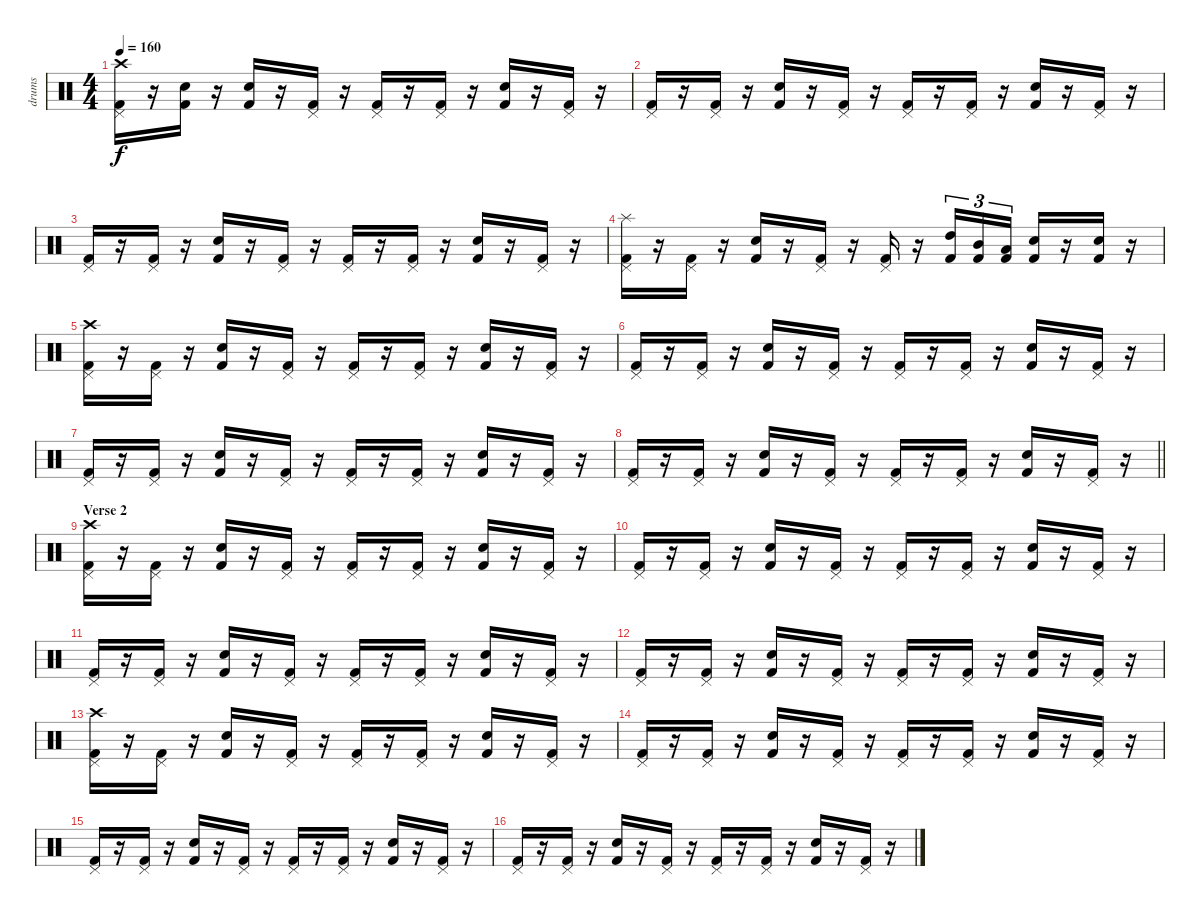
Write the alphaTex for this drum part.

\track ("drums" "drums") {instrument percussion}
\staff {score}
\articulation defaults
\ts (4 4)
\tempo 160
\clef neutral
\ks c
("Crash high (hit)" "Pedal Hi-Hat (hit)" "Kick (hit) 2").16{dy f} r.16 ("Snare (hit) 2" "Kick (hit) 2").16 r.16 ("Snare (hit) 2" "Kick (hit) 2").16 r.16 ("Pedal Hi-Hat (hit)" "Kick (hit) 2").16 r.16 ("Pedal Hi-Hat (hit)" "Kick (hit) 2").16 r.16 ("Pedal Hi-Hat (hit)" "Kick (hit) 2").16 r.16 ("Snare (hit) 2" "Kick (hit) 2").16 r.16 ("Pedal Hi-Hat (hit)" "Kick (hit) 2").16 r.16 |
("Pedal Hi-Hat (hit)" "Kick (hit) 2").16 r.16 ("Pedal Hi-Hat (hit)" "Kick (hit) 2").16 r.16 ("Snare (hit) 2" "Kick (hit) 2").16 r.16 ("Pedal Hi-Hat (hit)" "Kick (hit) 2").16 r.16 ("Pedal Hi-Hat (hit)" "Kick (hit) 2").16 r.16 ("Pedal Hi-Hat (hit)" "Kick (hit) 2").16 r.16 ("Snare (hit) 2" "Kick (hit) 2").16 r.16 ("Pedal Hi-Hat (hit)" "Kick (hit) 2").16 r.16 |
("Pedal Hi-Hat (hit)" "Kick (hit) 2").16 r.16 ("Pedal Hi-Hat (hit)" "Kick (hit) 2").16 r.16 ("Snare (hit) 2" "Kick (hit) 2").16 r.16 ("Pedal Hi-Hat (hit)" "Kick (hit) 2").16 r.16 ("Pedal Hi-Hat (hit)" "Kick (hit) 2").16 r.16 ("Pedal Hi-Hat (hit)" "Kick (hit) 2").16 r.16 ("Snare (hit) 2" "Kick (hit) 2").16 r.16 ("Pedal Hi-Hat (hit)" "Kick (hit) 2").16 r.16 |
("Splash (hit)" "Pedal Hi-Hat (hit)" "Kick (hit) 2").16 r.16 ("Pedal Hi-Hat (hit)" "Kick (hit) 2").16 r.16 ("Snare (hit) 2" "Kick (hit) 2").16 r.16 ("Pedal Hi-Hat (hit)" "Kick (hit) 2").16 r.16 ("Pedal Hi-Hat (hit)" "Kick (hit) 2").16 r.16 ("High Tom (hit)" "Kick (hit) 2").16{tu (3 2)} ("Mid Tom (hit)" "Kick (hit) 2").16{tu (3 2)} ("Low Tom (hit)" "Kick (hit) 2").16{tu (3 2)} ("Electric Snare (hit)" "Kick (hit) 2").16 r.16 ("Snare (hit) 2" "Kick (hit) 2").16 r.16 |
("Crash high (hit)" "Pedal Hi-Hat (hit)" "Kick (hit) 2").16 r.16 ("Pedal Hi-Hat (hit)" "Kick (hit) 2").16 r.16 ("Snare (hit) 2" "Kick (hit) 2").16 r.16 ("Pedal Hi-Hat (hit)" "Kick (hit) 2").16 r.16 ("Pedal Hi-Hat (hit)" "Kick (hit) 2").16 r.16 ("Pedal Hi-Hat (hit)" "Kick (hit) 2").16 r.16 ("Snare (hit) 2" "Kick (hit) 2").16 r.16 ("Pedal Hi-Hat (hit)" "Kick (hit) 2").16 r.16 |
("Pedal Hi-Hat (hit)" "Kick (hit) 2").16 r.16 ("Pedal Hi-Hat (hit)" "Kick (hit) 2").16 r.16 ("Snare (hit) 2" "Kick (hit) 2").16 r.16 ("Pedal Hi-Hat (hit)" "Kick (hit) 2").16 r.16 ("Pedal Hi-Hat (hit)" "Kick (hit) 2").16 r.16 ("Pedal Hi-Hat (hit)" "Kick (hit) 2").16 r.16 ("Snare (hit) 2" "Kick (hit) 2").16 r.16 ("Pedal Hi-Hat (hit)" "Kick (hit) 2").16 r.16 |
("Pedal Hi-Hat (hit)" "Kick (hit) 2").16 r.16 ("Pedal Hi-Hat (hit)" "Kick (hit) 2").16 r.16 ("Snare (hit) 2" "Kick (hit) 2").16 r.16 ("Pedal Hi-Hat (hit)" "Kick (hit) 2").16 r.16 ("Pedal Hi-Hat (hit)" "Kick (hit) 2").16 r.16 ("Pedal Hi-Hat (hit)" "Kick (hit) 2").16 r.16 ("Snare (hit) 2" "Kick (hit) 2").16 r.16 ("Pedal Hi-Hat (hit)" "Kick (hit) 2").16 r.16 |
\barLineRight lightlight
("Pedal Hi-Hat (hit)" "Kick (hit) 2").16 r.16 ("Pedal Hi-Hat (hit)" "Kick (hit) 2").16 r.16 ("Snare (hit) 2" "Kick (hit) 2").16 r.16 ("Pedal Hi-Hat (hit)" "Kick (hit) 2").16 r.16 ("Pedal Hi-Hat (hit)" "Kick (hit) 2").16 r.16 ("Pedal Hi-Hat (hit)" "Kick (hit) 2").16 r.16 ("Snare (hit) 2" "Kick (hit) 2").16 r.16 ("Pedal Hi-Hat (hit)" "Kick (hit) 2").16 r.16 |
\section ("" "Verse 2")
("Crash high (hit)" "Pedal Hi-Hat (hit)" "Kick (hit) 2").16 r.16 ("Pedal Hi-Hat (hit)" "Kick (hit) 2").16 r.16 ("Snare (hit) 2" "Kick (hit) 2").16 r.16 ("Pedal Hi-Hat (hit)" "Kick (hit) 2").16 r.16 ("Pedal Hi-Hat (hit)" "Kick (hit) 2").16 r.16 ("Pedal Hi-Hat (hit)" "Kick (hit) 2").16 r.16 ("Snare (hit) 2" "Kick (hit) 2").16 r.16 ("Pedal Hi-Hat (hit)" "Kick (hit) 2").16 r.16 |
("Pedal Hi-Hat (hit)" "Kick (hit) 2").16 r.16 ("Pedal Hi-Hat (hit)" "Kick (hit) 2").16 r.16 ("Snare (hit) 2" "Kick (hit) 2").16 r.16 ("Pedal Hi-Hat (hit)" "Kick (hit) 2").16 r.16 ("Pedal Hi-Hat (hit)" "Kick (hit) 2").16 r.16 ("Pedal Hi-Hat (hit)" "Kick (hit) 2").16 r.16 ("Snare (hit) 2" "Kick (hit) 2").16 r.16 ("Pedal Hi-Hat (hit)" "Kick (hit) 2").16 r.16 |
("Pedal Hi-Hat (hit)" "Kick (hit) 2").16 r.16 ("Pedal Hi-Hat (hit)" "Kick (hit) 2").16 r.16 ("Snare (hit) 2" "Kick (hit) 2").16 r.16 ("Pedal Hi-Hat (hit)" "Kick (hit) 2").16 r.16 ("Pedal Hi-Hat (hit)" "Kick (hit) 2").16 r.16 ("Pedal Hi-Hat (hit)" "Kick (hit) 2").16 r.16 ("Snare (hit) 2" "Kick (hit) 2").16 r.16 ("Pedal Hi-Hat (hit)" "Kick (hit) 2").16 r.16 |
("Pedal Hi-Hat (hit)" "Kick (hit) 2").16 r.16 ("Pedal Hi-Hat (hit)" "Kick (hit) 2").16 r.16 ("Snare (hit) 2" "Kick (hit) 2").16 r.16 ("Pedal Hi-Hat (hit)" "Kick (hit) 2").16 r.16 ("Pedal Hi-Hat (hit)" "Kick (hit) 2").16 r.16 ("Pedal Hi-Hat (hit)" "Kick (hit) 2").16 r.16 ("Snare (hit) 2" "Kick (hit) 2").16 r.16 ("Pedal Hi-Hat (hit)" "Kick (hit) 2").16 r.16 |
("Crash high (hit)" "Pedal Hi-Hat (hit)" "Kick (hit) 2").16 r.16 ("Pedal Hi-Hat (hit)" "Kick (hit) 2").16 r.16 ("Snare (hit) 2" "Kick (hit) 2").16 r.16 ("Pedal Hi-Hat (hit)" "Kick (hit) 2").16 r.16 ("Pedal Hi-Hat (hit)" "Kick (hit) 2").16 r.16 ("Pedal Hi-Hat (hit)" "Kick (hit) 2").16 r.16 ("Snare (hit) 2" "Kick (hit) 2").16 r.16 ("Pedal Hi-Hat (hit)" "Kick (hit) 2").16 r.16 |
("Pedal Hi-Hat (hit)" "Kick (hit) 2").16 r.16 ("Pedal Hi-Hat (hit)" "Kick (hit) 2").16 r.16 ("Snare (hit) 2" "Kick (hit) 2").16 r.16 ("Pedal Hi-Hat (hit)" "Kick (hit) 2").16 r.16 ("Pedal Hi-Hat (hit)" "Kick (hit) 2").16 r.16 ("Pedal Hi-Hat (hit)" "Kick (hit) 2").16 r.16 ("Snare (hit) 2" "Kick (hit) 2").16 r.16 ("Pedal Hi-Hat (hit)" "Kick (hit) 2").16 r.16 |
("Pedal Hi-Hat (hit)" "Kick (hit) 2").16 r.16 ("Pedal Hi-Hat (hit)" "Kick (hit) 2").16 r.16 ("Snare (hit) 2" "Kick (hit) 2").16 r.16 ("Pedal Hi-Hat (hit)" "Kick (hit) 2").16 r.16 ("Pedal Hi-Hat (hit)" "Kick (hit) 2").16 r.16 ("Pedal Hi-Hat (hit)" "Kick (hit) 2").16 r.16 ("Snare (hit) 2" "Kick (hit) 2").16 r.16 ("Pedal Hi-Hat (hit)" "Kick (hit) 2").16 r.16 |
("Pedal Hi-Hat (hit)" "Kick (hit) 2").16 r.16 ("Pedal Hi-Hat (hit)" "Kick (hit) 2").16 r.16 ("Snare (hit) 2" "Kick (hit) 2").16 r.16 ("Pedal Hi-Hat (hit)" "Kick (hit) 2").16 r.16 ("Pedal Hi-Hat (hit)" "Kick (hit) 2").16 r.16 ("Pedal Hi-Hat (hit)" "Kick (hit) 2").16 r.16 ("Snare (hit) 2" "Kick (hit) 2").16 r.16 ("Pedal Hi-Hat (hit)" "Kick (hit) 2").16 r.16
